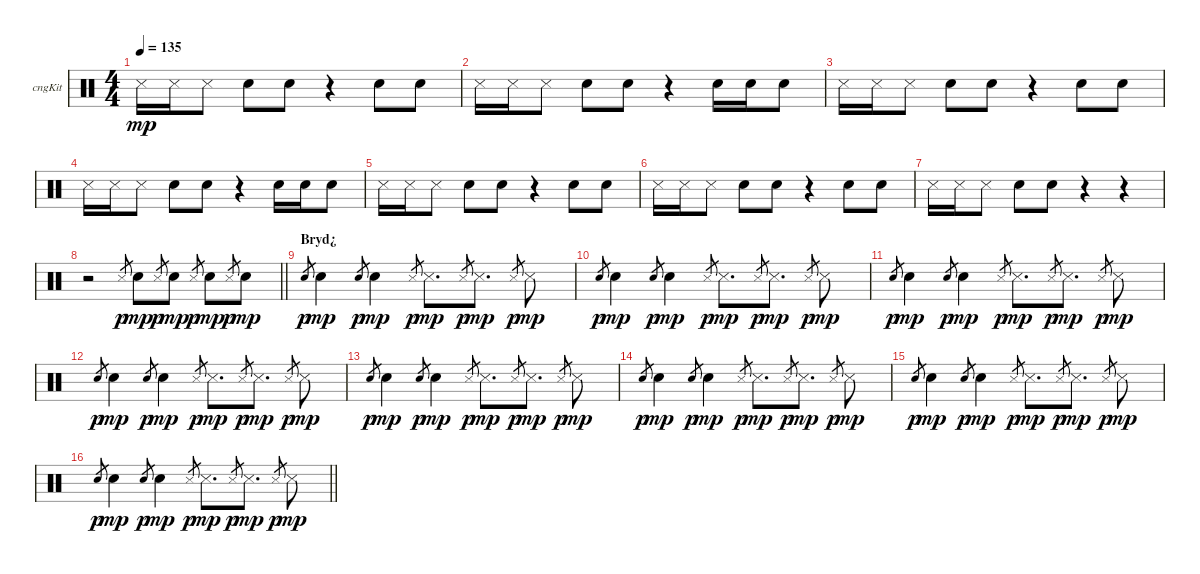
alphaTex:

\bracketExtendMode groupsimilarinstruments
\firstSystemTrackNameOrientation horizontal
\otherSystemsTrackNameOrientation horizontal
\track ("Congas" "cngKit") {instrument percussion}
\staff {score}
\articulation defaults
\ts (4 4)
\tempo 135
\clef neutral
\ks c "Snare (side stick) 3".16{dy mp} "Snare (side stick) 3".16 "Snare (side stick) 3".8 "Snare (hit) 2".8 "Snare (hit) 2".8
r.4 "Snare (hit) 2".8 "Snare (hit) 2".8 |
"Snare (side stick) 3".16 "Snare (side stick) 3".16 "Snare (side stick) 3".8 "Snare (hit) 2".8 "Snare (hit) 2".8 r.4 "Snare (hit) 2".16 "Snare (hit) 2".16 "Snare (hit) 2".8 |
"Snare (side stick) 3".16 "Snare (side stick) 3".16 "Snare (side stick) 3".8 "Snare (hit) 2".8 "Snare (hit) 2".8 r.4 "Snare (hit) 2".8 "Snare (hit) 2".8 |
"Snare (side stick) 3".16 "Snare (side stick) 3".16 "Snare (side stick) 3".8 "Snare (hit) 2".8 "Snare (hit) 2".8 r.4 "Snare (hit) 2".16 "Snare (hit) 2".16 "Snare (hit) 2".8 |
"Snare (side stick) 3".16 "Snare (side stick) 3".16 "Snare (side stick) 3".8 "Snare (hit) 2".8 "Snare (hit) 2".8 r.4 "Snare (hit) 2".8 "Snare (hit) 2".8 |
"Snare (side stick) 3".16 "Snare (side stick) 3".16 "Snare (side stick) 3".8 "Snare (hit) 2".8 "Snare (hit) 2".8 r.4 "Snare (hit) 2".8 "Snare (hit) 2".8 |
"Snare (side stick) 3".16 "Snare (side stick) 3".16 "Snare (side stick) 3".8 "Snare (hit) 2".8 "Snare (hit) 2".8 r.4 r.4 |
\barLineRight lightlight
r.2 "Snare (side stick) 3".8{gr dy p} "Snare (hit) 2".8{dy mp} "Snare (side stick) 3".8{gr dy p} "Snare (hit) 2".8{dy mp} "Snare (side stick) 3".8{gr dy p} "Snare (hit) 2".8{dy mp} "Snare (side stick) 3".8{gr dy p} "Snare (hit) 2".8{dy mp} |
\section ("" "Bryd¿")
"Snare (hit) 2".8{gr dy p} "Snare (hit) 2".4{dy mp} "Snare (hit) 2".8{gr dy p} "Snare (hit) 2".4{dy mp} "Snare (side stick) 3".8{gr dy p} "Snare (side stick) 3".8{d dy mp} "Snare (side stick) 3".8{gr dy p} "Snare (side stick) 3".8{d dy mp} "Snare (side stick) 3".8{gr dy p} "Snare (side stick) 3".8{dy mp} |
"Snare (hit) 2".8{gr dy p} "Snare (hit) 2".4{dy mp} "Snare (hit) 2".8{gr dy p} "Snare (hit) 2".4{dy mp} "Snare (side stick) 3".8{gr dy p} "Snare (side stick) 3".8{d dy mp} "Snare (side stick) 3".8{gr dy p} "Snare (side stick) 3".8{d dy mp} "Snare (side stick) 3".8{gr dy p} "Snare (side stick) 3".8{dy mp} |
"Snare (hit) 2".8{gr dy p} "Snare (hit) 2".4{dy mp} "Snare (hit) 2".8{gr dy p} "Snare (hit) 2".4{dy mp} "Snare (side stick) 3".8{gr dy p} "Snare (side stick) 3".8{d dy mp} "Snare (side stick) 3".8{gr dy p} "Snare (side stick) 3".8{d dy mp} "Snare (side stick) 3".8{gr dy p} "Snare (side stick) 3".8{dy mp} |
"Snare (hit) 2".8{gr dy p} "Snare (hit) 2".4{dy mp} "Snare (hit) 2".8{gr dy p} "Snare (hit) 2".4{dy mp} "Snare (side stick) 3".8{gr dy p} "Snare (side stick) 3".8{d dy mp} "Snare (side stick) 3".8{gr dy p} "Snare (side stick) 3".8{d dy mp} "Snare (side stick) 3".8{gr dy p} "Snare (side stick) 3".8{dy mp} |
"Snare (hit) 2".8{gr dy p} "Snare (hit) 2".4{dy mp} "Snare (hit) 2".8{gr dy p} "Snare (hit) 2".4{dy mp} "Snare (side stick) 3".8{gr dy p} "Snare (side stick) 3".8{d dy mp} "Snare (side stick) 3".8{gr dy p} "Snare (side stick) 3".8{d dy mp} "Snare (side stick) 3".8{gr dy p} "Snare (side stick) 3".8{dy mp} |
"Snare (hit) 2".8{gr dy p} "Snare (hit) 2".4{dy mp} "Snare (hit) 2".8{gr dy p} "Snare (hit) 2".4{dy mp} "Snare (side stick) 3".8{gr dy p} "Snare (side stick) 3".8{d dy mp} "Snare (side stick) 3".8{gr dy p} "Snare (side stick) 3".8{d dy mp} "Snare (side stick) 3".8{gr dy p} "Snare (side stick) 3".8{dy mp} |
"Snare (hit) 2".8{gr dy p} "Snare (hit) 2".4{dy mp} "Snare (hit) 2".8{gr dy p} "Snare (hit) 2".4{dy mp} "Snare (side stick) 3".8{gr dy p} "Snare (side stick) 3".8{d dy mp} "Snare (side stick) 3".8{gr dy p} "Snare (side stick) 3".8{d dy mp} "Snare (side stick) 3".8{gr dy p} "Snare (side stick) 3".8{dy mp} |
\barLineRight lightlight "Snare (hit) 2".8{gr dy p} "Snare (hit) 2".4{dy mp} "Snare (hit) 2".8{gr dy p} "Snare (hit) 2".4{dy mp} "Snare (side stick) 3".8{gr dy p} "Snare (side stick) 3".8{d dy mp} "Snare (side stick) 3".8{gr dy p} "Snare (side stick) 3".8{d dy mp} "Snare (side stick) 3".8{gr dy p} "Snare (side stick) 3".8{dy mp}
